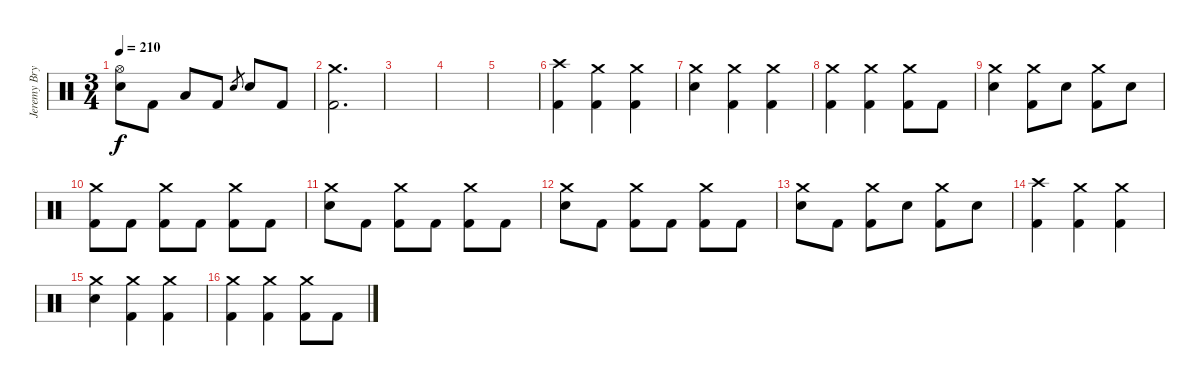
\track ("Jeremy Bryan - Drums" "Jeremy Bry") {instrument percussion}
\staff {score}
\articulation defaults
\ts (3 4)
\tempo 210
\clef neutral
\ks c
("Hi-Hat (open)" "Electric Snare (hit)").8{dy f} "Kick (hit) 2".8 "Low Tom (hit)".8 "Kick (hit) 2".8 "Electric Snare (hit)".8{gr} "Electric Snare (hit)".8 "Kick (hit) 2".8 |
("Crash medium (hit)" "Kick (hit) 2").2{d} |
|
|
|
("Crash high (hit)" "Kick (hit) 2").4 ("Crash medium (hit)" "Kick (hit) 2").4 ("Crash medium (hit)" "Kick (hit) 2").4 |
("Crash medium (hit)" "Electric Snare (hit)").4 ("Crash medium (hit)" "Kick (hit) 2").4 ("Crash medium (hit)" "Kick (hit) 2").4 |
("Crash medium (hit)" "Kick (hit) 2").4 ("Crash medium (hit)" "Kick (hit) 2").4 ("Crash medium (hit)" "Kick (hit) 2").8 "Kick (hit) 2".8 |
("Crash medium (hit)" "Electric Snare (hit)").4 ("Crash medium (hit)" "Kick (hit) 2").8 "Electric Snare (hit)".8 ("Crash medium (hit)" "Kick (hit) 2").8 "Electric Snare (hit)".8 |
("Crash medium (hit)" "Kick (hit) 2").8 "Kick (hit) 2".8 ("Crash medium (hit)" "Kick (hit) 2").8 "Kick (hit) 2".8 ("Crash medium (hit)" "Kick (hit) 2").8 "Kick (hit) 2".8 |
("Crash medium (hit)" "Electric Snare (hit)").8 "Kick (hit) 2".8 ("Crash medium (hit)" "Kick (hit) 2").8 "Kick (hit) 2".8 ("Crash medium (hit)" "Kick (hit) 2").8 "Kick (hit) 2".8 |
("Crash medium (hit)" "Electric Snare (hit)").8 "Kick (hit) 2".8 ("Crash medium (hit)" "Kick (hit) 2").8 "Kick (hit) 2".8 ("Crash medium (hit)" "Kick (hit) 2").8 "Kick (hit) 2".8 |
("Crash medium (hit)" "Electric Snare (hit)").8 "Kick (hit) 2".8 ("Crash medium (hit)" "Kick (hit) 2").8 "Electric Snare (hit)".8 ("Crash medium (hit)" "Kick (hit) 2").8 "Electric Snare (hit)".8 |
("Crash high (hit)" "Kick (hit) 2").4 ("Crash medium (hit)" "Kick (hit) 2").4 ("Crash medium (hit)" "Kick (hit) 2").4 |
("Crash medium (hit)" "Electric Snare (hit)").4 ("Crash medium (hit)" "Kick (hit) 2").4 ("Crash medium (hit)" "Kick (hit) 2").4 |
("Crash medium (hit)" "Kick (hit) 2").4 ("Crash medium (hit)" "Kick (hit) 2").4 ("Crash medium (hit)" "Kick (hit) 2").8 "Kick (hit) 2".8
